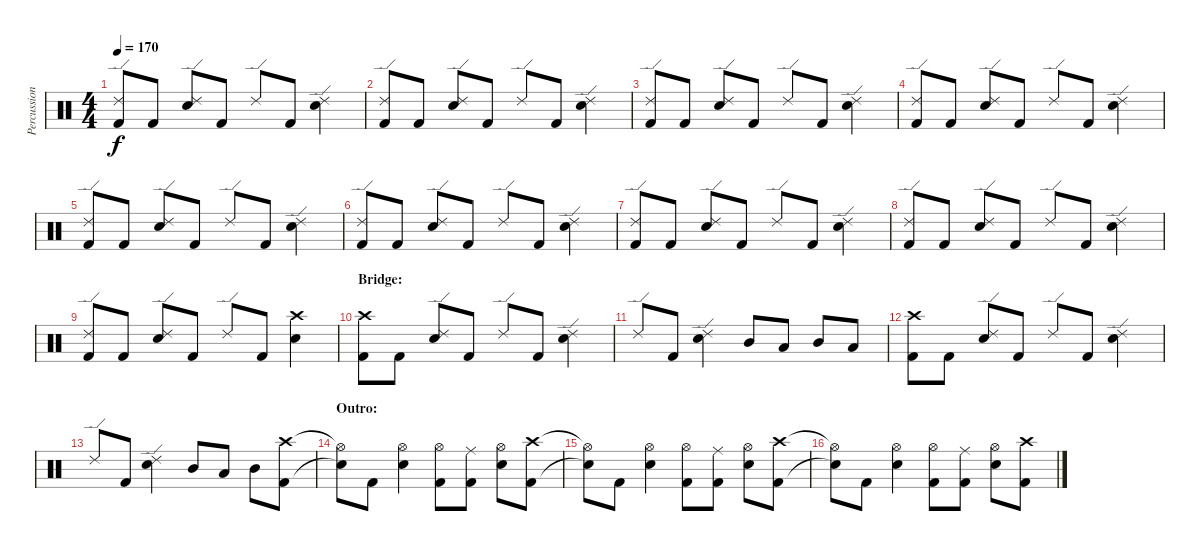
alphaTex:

\track ("Percussion" "Percussion") {instrument percussion}
\staff {score}
\articulation defaults
\ts (4 4)
\tempo 170
\clef neutral
\ks c
("Ride (edge) 2" "Kick (hit) 2").8{dy f} "Kick (hit) 2".8 ("Ride (edge) 2" "Snare (hit) 2").8 "Kick (hit) 2".8 "Ride (edge) 2".8 "Kick (hit) 2".8 ("Ride (edge) 2" "Snare (hit) 2").4 |
("Ride (edge) 2" "Kick (hit) 2").8 "Kick (hit) 2".8 ("Ride (edge) 2" "Snare (hit) 2").8 "Kick (hit) 2".8 "Ride (edge) 2".8 "Kick (hit) 2".8 ("Ride (edge) 2" "Snare (hit) 2").4 |
("Ride (edge) 2" "Kick (hit) 2").8 "Kick (hit) 2".8 ("Ride (edge) 2" "Snare (hit) 2").8 "Kick (hit) 2".8 "Ride (edge) 2".8 "Kick (hit) 2".8 ("Ride (edge) 2" "Snare (hit) 2").4 |
("Ride (edge) 2" "Kick (hit) 2").8 "Kick (hit) 2".8 ("Ride (edge) 2" "Snare (hit) 2").8 "Kick (hit) 2".8 "Ride (edge) 2".8 "Kick (hit) 2".8 ("Ride (edge) 2" "Snare (hit) 2").4 |
("Ride (edge) 2" "Kick (hit) 2").8 "Kick (hit) 2".8 ("Ride (edge) 2" "Snare (hit) 2").8 "Kick (hit) 2".8 "Ride (edge) 2".8 "Kick (hit) 2".8 ("Ride (edge) 2" "Snare (hit) 2").4 |
("Ride (edge) 2" "Kick (hit) 2").8 "Kick (hit) 2".8 ("Ride (edge) 2" "Snare (hit) 2").8 "Kick (hit) 2".8 "Ride (edge) 2".8 "Kick (hit) 2".8 ("Ride (edge) 2" "Snare (hit) 2").4 |
("Ride (edge) 2" "Kick (hit) 2").8 "Kick (hit) 2".8 ("Ride (edge) 2" "Snare (hit) 2").8 "Kick (hit) 2".8 "Ride (edge) 2".8 "Kick (hit) 2".8 ("Ride (edge) 2" "Snare (hit) 2").4 |
("Ride (edge) 2" "Kick (hit) 2").8 "Kick (hit) 2".8 ("Ride (edge) 2" "Snare (hit) 2").8 "Kick (hit) 2".8 "Ride (edge) 2".8 "Kick (hit) 2".8 ("Ride (edge) 2" "Snare (hit) 2").4 |
("Ride (edge) 2" "Kick (hit) 2").8 "Kick (hit) 2".8 ("Ride (edge) 2" "Snare (hit) 2").8 "Kick (hit) 2".8 "Ride (edge) 2".8 "Kick (hit) 2".8 ("Crash high (hit)" "Snare (hit) 2").4 |
\section ("" "Bridge:")
("Crash high (hit)" "Kick (hit) 2").8 "Kick (hit) 2".8 ("Ride (edge) 2" "Snare (hit) 2").8 "Kick (hit) 2".8 "Ride (edge) 2".8 "Kick (hit) 2".8 ("Ride (edge) 2" "Snare (hit) 2").4 |
"Ride (edge) 2".8 "Kick (hit) 2".8 ("Ride (edge) 2" "Snare (hit) 2").4 "Mid Tom (hit)".8 "Low Tom (hit)".8 "Mid Tom (hit)".8 "Low Tom (hit)".8 |
("Crash high (hit)" "Kick (hit) 2").8 "Kick (hit) 2".8 ("Ride (edge) 2" "Snare (hit) 2").8 "Kick (hit) 2".8 "Ride (edge) 2".8 "Kick (hit) 2".8 ("Ride (edge) 2" "Snare (hit) 2").4 |
"Ride (edge) 2".8 "Kick (hit) 2".8 ("Ride (edge) 2" "Snare (hit) 2").4 "Mid Tom (hit)".8 "Low Tom (hit)".8 "Mid Tom (hit)".8 ("Crash high (hit)" "Kick (hit) 2").8 |
\section ("" "Outro:")
("Hi-Hat (open)"{t} "Snare (hit)"{t}).8 "Kick (hit) 2".8 ("Hi-Hat (open)" "Snare (hit) 2").4 ("Hi-Hat (open)" "Kick (hit) 2").8 ("Ride (middle)" "Kick (hit) 2").8 ("Hi-Hat (open)" "Snare (hit) 2").8 ("Crash high (hit)" "Kick (hit) 2").8 |
("Hi-Hat (open)"{t} "Snare (hit)"{t}).8 "Kick (hit) 2".8 ("Hi-Hat (open)" "Snare (hit) 2").4 ("Hi-Hat (open)" "Kick (hit) 2").8 ("Ride (middle)" "Kick (hit) 2").8 ("Hi-Hat (open)" "Snare (hit) 2").8 ("Crash high (hit)" "Kick (hit) 2").8 |
("Hi-Hat (open)"{t} "Snare (hit)"{t}).8 "Kick (hit) 2".8 ("Hi-Hat (open)" "Snare (hit) 2").4 ("Hi-Hat (open)" "Kick (hit) 2").8 ("Ride (middle)" "Kick (hit) 2").8 ("Hi-Hat (open)" "Snare (hit) 2").8 ("Crash high (hit)" "Kick (hit) 2").8
